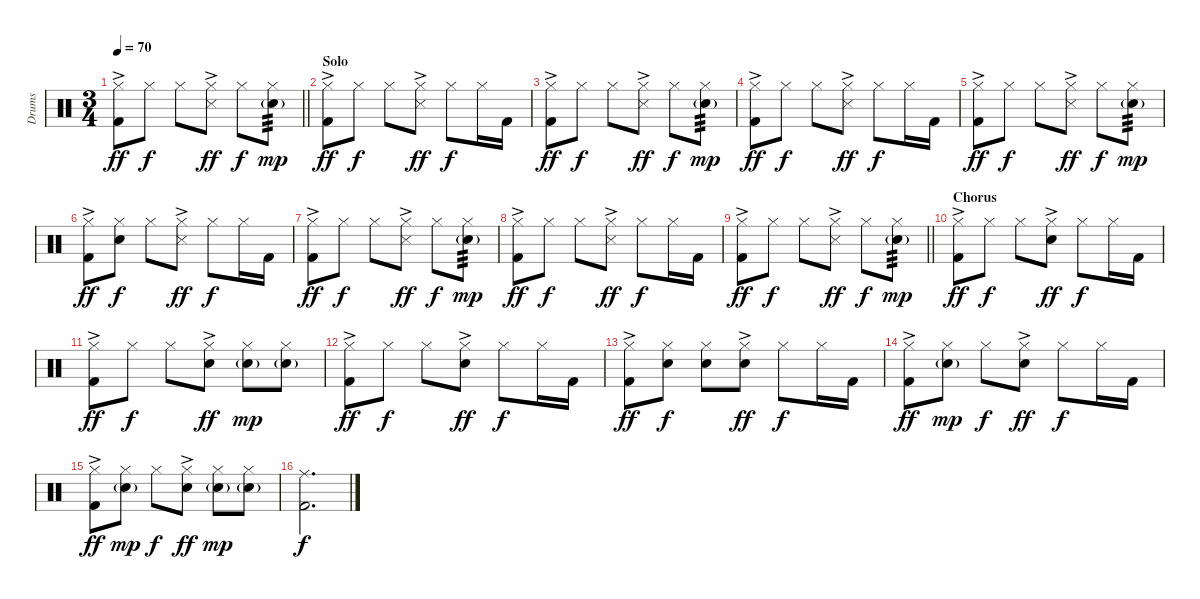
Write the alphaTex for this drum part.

\track ("Drums" "Drums") {instrument percussion}
\staff {score}
\articulation defaults
\ts (3 4)
\tempo 70
\clef neutral
\barLineRight lightlight
\ks c
("Hi-Hat (closed)" "Kick (hit) 2"{ac}).8{dy ff} "Hi-Hat (closed)".8{dy f} "Hi-Hat (closed)".8 ("Hi-Hat (closed)" "Snare (side stick) 3"{ac}).8{dy ff} "Hi-Hat (closed)".8{dy f} ("Hi-Hat (closed)" "Snare (hit) 2"{g}).8{tp 3 dy mp} |
\section ("" "Solo")
("Hi-Hat (closed)" "Kick (hit) 2"{ac}).8{dy ff} "Hi-Hat (closed)".8{dy f} "Hi-Hat (closed)".8 ("Hi-Hat (closed)" "Snare (side stick) 3"{ac}).8{dy ff} "Hi-Hat (closed)".8{dy f} "Hi-Hat (closed)".16 "Kick (hit) 2".16 |
("Hi-Hat (closed)" "Kick (hit) 2"{ac}).8{dy ff} "Hi-Hat (closed)".8{dy f} "Hi-Hat (closed)".8 ("Hi-Hat (closed)" "Snare (side stick) 3"{ac}).8{dy ff} "Hi-Hat (closed)".8{dy f} ("Hi-Hat (closed)" "Snare (hit) 2"{g}).8{tp 3 dy mp} |
("Hi-Hat (closed)" "Kick (hit) 2"{ac}).8{dy ff} "Hi-Hat (closed)".8{dy f} "Hi-Hat (closed)".8 ("Hi-Hat (closed)" "Snare (side stick) 3"{ac}).8{dy ff} "Hi-Hat (closed)".8{dy f} "Hi-Hat (closed)".16 "Kick (hit) 2".16 |
("Hi-Hat (closed)" "Kick (hit) 2"{ac}).8{dy ff} "Hi-Hat (closed)".8{dy f} "Hi-Hat (closed)".8 ("Hi-Hat (closed)" "Snare (side stick) 3"{ac}).8{dy ff} "Hi-Hat (closed)".8{dy f} ("Hi-Hat (closed)" "Snare (hit) 2"{g}).8{tp 3 dy mp} |
("Hi-Hat (closed)" "Kick (hit) 2"{ac}).8{dy ff} ("Hi-Hat (closed)" "Snare (hit) 2").8{dy f} "Hi-Hat (closed)".8 ("Hi-Hat (closed)" "Snare (side stick) 3"{ac}).8{dy ff} "Hi-Hat (closed)".8{dy f} "Hi-Hat (closed)".16 "Kick (hit) 2".16 |
("Hi-Hat (closed)" "Kick (hit) 2"{ac}).8{dy ff} "Hi-Hat (closed)".8{dy f} "Hi-Hat (closed)".8 ("Hi-Hat (closed)" "Snare (side stick) 3"{ac}).8{dy ff} "Hi-Hat (closed)".8{dy f} ("Hi-Hat (closed)" "Snare (hit) 2"{g}).8{tp 3 dy mp} |
("Hi-Hat (closed)" "Kick (hit) 2"{ac}).8{dy ff} "Hi-Hat (closed)".8{dy f} "Hi-Hat (closed)".8 ("Hi-Hat (closed)" "Snare (side stick) 3"{ac}).8{dy ff} "Hi-Hat (closed)".8{dy f} "Hi-Hat (closed)".16 "Kick (hit) 2".16 |
\barLineRight lightlight
("Hi-Hat (closed)" "Kick (hit) 2"{ac}).8{dy ff} "Hi-Hat (closed)".8{dy f} "Hi-Hat (closed)".8 ("Hi-Hat (closed)" "Snare (side stick) 3"{ac}).8{dy ff} "Hi-Hat (closed)".8{dy f} ("Hi-Hat (closed)" "Snare (hit) 2"{g}).8{tp 3 dy mp} |
\section ("" "Chorus")
("Hi-Hat (closed)" "Kick (hit) 2"{ac}).8{dy ff} "Hi-Hat (closed)".8{dy f} "Hi-Hat (closed)".8 ("Hi-Hat (closed)" "Snare (hit) 2"{ac}).8{dy ff} "Hi-Hat (closed)".8{dy f} "Hi-Hat (closed)".16 "Kick (hit) 2".16 |
("Hi-Hat (closed)" "Kick (hit) 2"{ac}).8{dy ff} "Hi-Hat (closed)".8{dy f} "Hi-Hat (closed)".8 ("Hi-Hat (closed)" "Snare (hit) 2"{ac}).8{dy ff} ("Hi-Hat (closed)" "Snare (hit) 2"{g}).8{dy mp} ("Hi-Hat (closed)" "Snare (hit) 2"{g}).8 |
("Hi-Hat (closed)" "Kick (hit) 2"{ac}).8{dy ff} "Hi-Hat (closed)".8{dy f} "Hi-Hat (closed)".8 ("Hi-Hat (closed)" "Snare (hit) 2"{ac}).8{dy ff} "Hi-Hat (closed)".8{dy f} "Hi-Hat (closed)".16 "Kick (hit) 2".16 |
("Hi-Hat (closed)" "Kick (hit) 2"{ac}).8{dy ff} ("Hi-Hat (closed)" "Snare (hit) 2").8{dy f} ("Hi-Hat (closed)" "Snare (hit) 2").8 ("Hi-Hat (closed)" "Snare (hit) 2"{ac}).8{dy ff} "Hi-Hat (closed)".8{dy f} "Hi-Hat (closed)".16 "Kick (hit) 2".16 |
("Hi-Hat (closed)" "Kick (hit) 2"{ac}).8{dy ff} ("Hi-Hat (closed)" "Snare (hit) 2"{g}).8{dy mp} "Hi-Hat (closed)".8{dy f} ("Hi-Hat (closed)" "Snare (hit) 2"{ac}).8{dy ff} "Hi-Hat (closed)".8{dy f} "Hi-Hat (closed)".16 "Kick (hit) 2".16 |
("Hi-Hat (closed)" "Kick (hit) 2"{ac}).8{dy ff} ("Hi-Hat (closed)" "Snare (hit) 2"{g}).8{dy mp} "Hi-Hat (closed)".8{dy f} ("Hi-Hat (closed)" "Snare (hit) 2"{ac}).8{dy ff} ("Hi-Hat (closed)" "Snare (hit) 2"{g}).8{dy mp} ("Hi-Hat (closed)" "Snare (hit) 2"{g}).8 |
("Ride (middle)" "Kick (hit) 2").2{d dy f}
